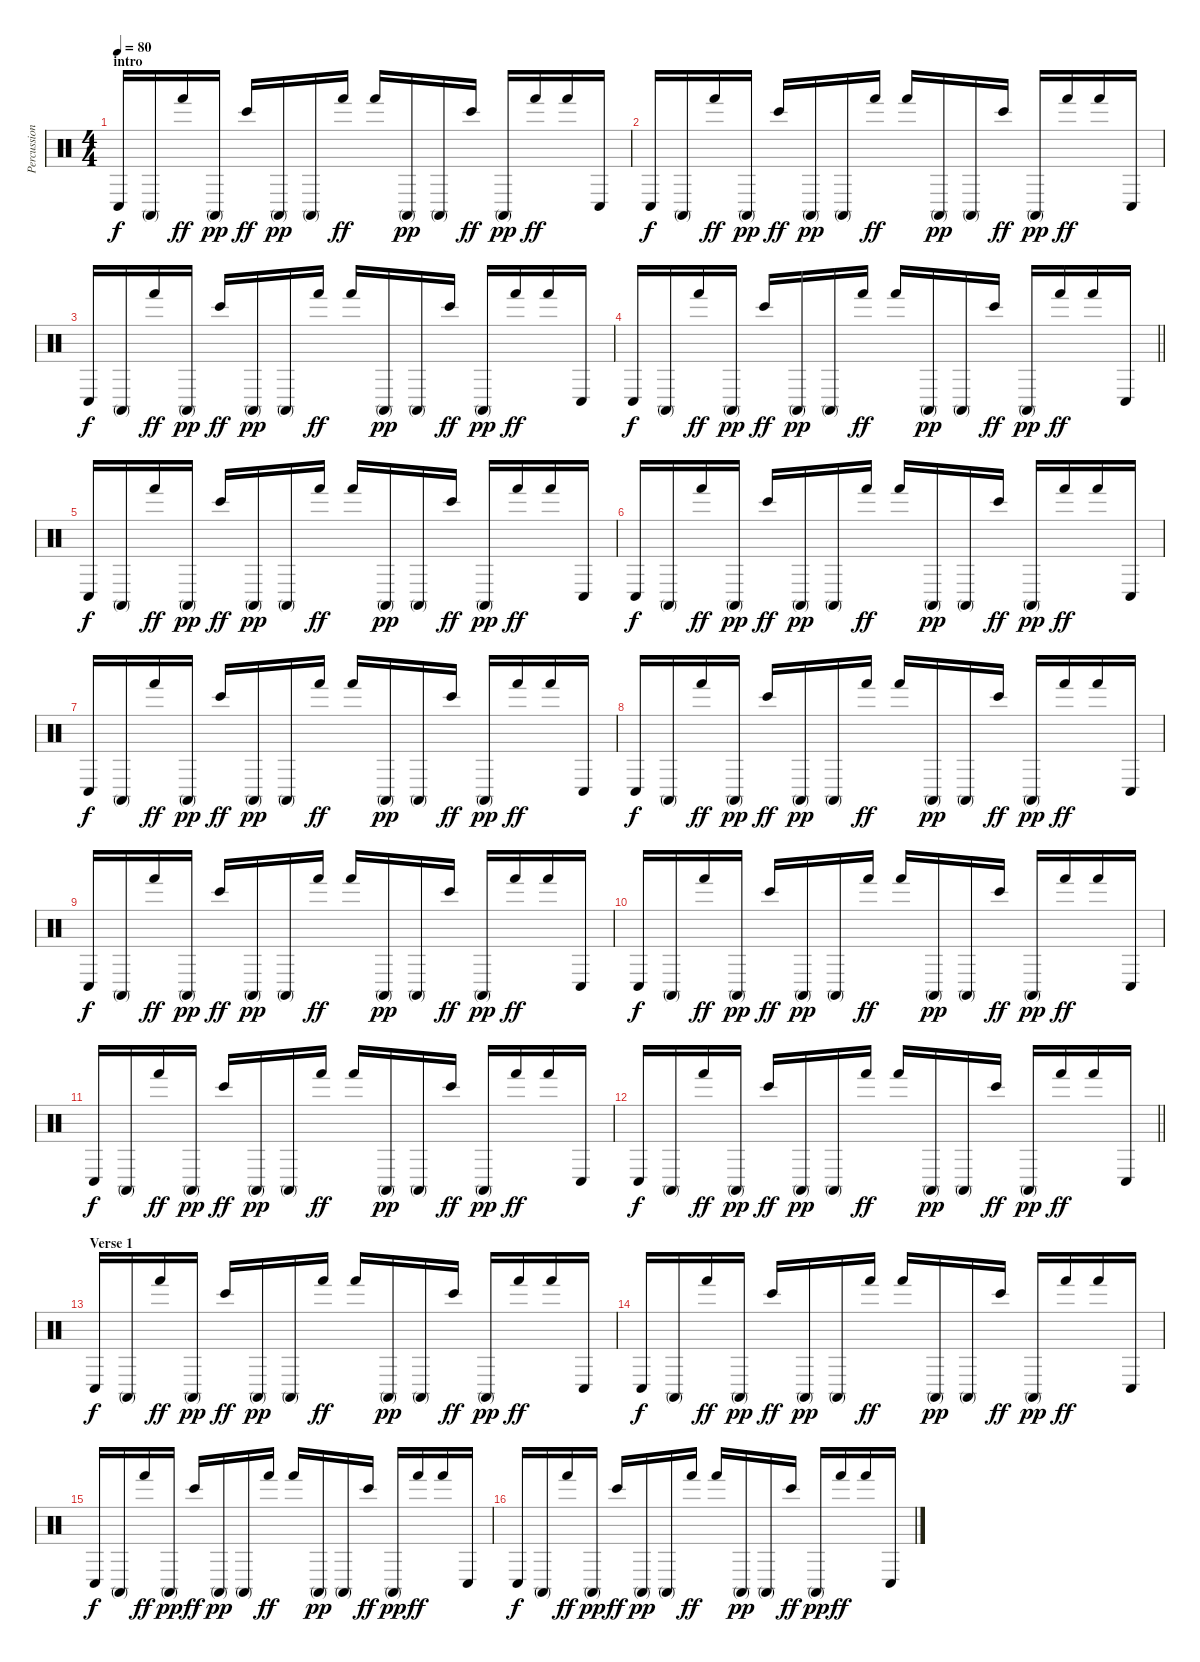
\track ("Percussions" "Percussion") {instrument percussion}
\staff {score}
\articulation defaults
\ts (4 4)
\section ("" "intro")
\tempo 80
\clef neutral
\ks c "Conga low (hit)".16{dy f} "Conga high (mute)".16 "Hand (hit)".16{dy ff} "Conga high (mute)".16{dy pp} "Bongo High (hit)".16{dy ff} "Conga high (mute)".16{dy pp} "Conga high (mute)".16 "Hand (hit)".16{dy ff} "Hand (hit)".16 "Conga high (mute)".16{dy pp} "Conga high (mute)".16 "Bongo High (hit)".16{dy ff} "Conga high (mute)".16{dy pp} "Hand (hit)".16{dy ff} "Hand (hit)".16 "Conga low (hit)".16
|
"Conga low (hit)".16{dy f} "Conga high (mute)".16 "Hand (hit)".16{dy ff} "Conga high (mute)".16{dy pp} "Bongo High (hit)".16{dy ff} "Conga high (mute)".16{dy pp} "Conga high (mute)".16 "Hand (hit)".16{dy ff} "Hand (hit)".16 "Conga high (mute)".16{dy pp} "Conga high (mute)".16 "Bongo High (hit)".16{dy ff} "Conga high (mute)".16{dy pp} "Hand (hit)".16{dy ff} "Hand (hit)".16 "Conga low (hit)".16 |
"Conga low (hit)".16{dy f} "Conga high (mute)".16 "Hand (hit)".16{dy ff} "Conga high (mute)".16{dy pp} "Bongo High (hit)".16{dy ff} "Conga high (mute)".16{dy pp} "Conga high (mute)".16 "Hand (hit)".16{dy ff} "Hand (hit)".16 "Conga high (mute)".16{dy pp} "Conga high (mute)".16 "Bongo High (hit)".16{dy ff} "Conga high (mute)".16{dy pp} "Hand (hit)".16{dy ff} "Hand (hit)".16 "Conga low (hit)".16 |
\barLineRight lightlight "Conga low (hit)".16{dy f} "Conga high (mute)".16 "Hand (hit)".16{dy ff} "Conga high (mute)".16{dy pp} "Bongo High (hit)".16{dy ff} "Conga high (mute)".16{dy pp} "Conga high (mute)".16 "Hand (hit)".16{dy ff} "Hand (hit)".16 "Conga high (mute)".16{dy pp} "Conga high (mute)".16 "Bongo High (hit)".16{dy ff} "Conga high (mute)".16{dy pp} "Hand (hit)".16{dy ff} "Hand (hit)".16 "Conga low (hit)".16
|
"Conga low (hit)".16{dy f} "Conga high (mute)".16 "Hand (hit)".16{dy ff} "Conga high (mute)".16{dy pp} "Bongo High (hit)".16{dy ff} "Conga high (mute)".16{dy pp} "Conga high (mute)".16 "Hand (hit)".16{dy ff} "Hand (hit)".16 "Conga high (mute)".16{dy pp} "Conga high (mute)".16 "Bongo High (hit)".16{dy ff} "Conga high (mute)".16{dy pp} "Hand (hit)".16{dy ff} "Hand (hit)".16 "Conga low (hit)".16 |
"Conga low (hit)".16{dy f} "Conga high (mute)".16 "Hand (hit)".16{dy ff} "Conga high (mute)".16{dy pp} "Bongo High (hit)".16{dy ff} "Conga high (mute)".16{dy pp} "Conga high (mute)".16 "Hand (hit)".16{dy ff} "Hand (hit)".16 "Conga high (mute)".16{dy pp} "Conga high (mute)".16 "Bongo High (hit)".16{dy ff} "Conga high (mute)".16{dy pp} "Hand (hit)".16{dy ff} "Hand (hit)".16 "Conga low (hit)".16 |
"Conga low (hit)".16{dy f} "Conga high (mute)".16 "Hand (hit)".16{dy ff} "Conga high (mute)".16{dy pp} "Bongo High (hit)".16{dy ff} "Conga high (mute)".16{dy pp} "Conga high (mute)".16 "Hand (hit)".16{dy ff} "Hand (hit)".16 "Conga high (mute)".16{dy pp} "Conga high (mute)".16 "Bongo High (hit)".16{dy ff} "Conga high (mute)".16{dy pp} "Hand (hit)".16{dy ff} "Hand (hit)".16 "Conga low (hit)".16 |
"Conga low (hit)".16{dy f} "Conga high (mute)".16 "Hand (hit)".16{dy ff} "Conga high (mute)".16{dy pp} "Bongo High (hit)".16{dy ff} "Conga high (mute)".16{dy pp} "Conga high (mute)".16 "Hand (hit)".16{dy ff} "Hand (hit)".16 "Conga high (mute)".16{dy pp} "Conga high (mute)".16 "Bongo High (hit)".16{dy ff} "Conga high (mute)".16{dy pp} "Hand (hit)".16{dy ff} "Hand (hit)".16 "Conga low (hit)".16 |
"Conga low (hit)".16{dy f} "Conga high (mute)".16 "Hand (hit)".16{dy ff} "Conga high (mute)".16{dy pp} "Bongo High (hit)".16{dy ff} "Conga high (mute)".16{dy pp} "Conga high (mute)".16 "Hand (hit)".16{dy ff} "Hand (hit)".16 "Conga high (mute)".16{dy pp} "Conga high (mute)".16 "Bongo High (hit)".16{dy ff} "Conga high (mute)".16{dy pp} "Hand (hit)".16{dy ff} "Hand (hit)".16 "Conga low (hit)".16 |
"Conga low (hit)".16{dy f} "Conga high (mute)".16 "Hand (hit)".16{dy ff} "Conga high (mute)".16{dy pp} "Bongo High (hit)".16{dy ff} "Conga high (mute)".16{dy pp} "Conga high (mute)".16 "Hand (hit)".16{dy ff} "Hand (hit)".16 "Conga high (mute)".16{dy pp} "Conga high (mute)".16 "Bongo High (hit)".16{dy ff} "Conga high (mute)".16{dy pp} "Hand (hit)".16{dy ff} "Hand (hit)".16 "Conga low (hit)".16 |
"Conga low (hit)".16{dy f} "Conga high (mute)".16 "Hand (hit)".16{dy ff} "Conga high (mute)".16{dy pp} "Bongo High (hit)".16{dy ff} "Conga high (mute)".16{dy pp} "Conga high (mute)".16 "Hand (hit)".16{dy ff} "Hand (hit)".16 "Conga high (mute)".16{dy pp} "Conga high (mute)".16 "Bongo High (hit)".16{dy ff} "Conga high (mute)".16{dy pp} "Hand (hit)".16{dy ff} "Hand (hit)".16 "Conga low (hit)".16 |
\barLineRight lightlight "Conga low (hit)".16{dy f} "Conga high (mute)".16 "Hand (hit)".16{dy ff} "Conga high (mute)".16{dy pp} "Bongo High (hit)".16{dy ff} "Conga high (mute)".16{dy pp} "Conga high (mute)".16 "Hand (hit)".16{dy ff} "Hand (hit)".16 "Conga high (mute)".16{dy pp} "Conga high (mute)".16 "Bongo High (hit)".16{dy ff} "Conga high (mute)".16{dy pp} "Hand (hit)".16{dy ff} "Hand (hit)".16 "Conga low (hit)".16
|
\section ("" "Verse 1")
"Conga low (hit)".16{dy f} "Conga high (mute)".16 "Hand (hit)".16{dy ff} "Conga high (mute)".16{dy pp} "Bongo High (hit)".16{dy ff} "Conga high (mute)".16{dy pp} "Conga high (mute)".16 "Hand (hit)".16{dy ff} "Hand (hit)".16 "Conga high (mute)".16{dy pp} "Conga high (mute)".16 "Bongo High (hit)".16{dy ff} "Conga high (mute)".16{dy pp} "Hand (hit)".16{dy ff} "Hand (hit)".16 "Conga low (hit)".16 |
"Conga low (hit)".16{dy f} "Conga high (mute)".16 "Hand (hit)".16{dy ff} "Conga high (mute)".16{dy pp} "Bongo High (hit)".16{dy ff} "Conga high (mute)".16{dy pp} "Conga high (mute)".16 "Hand (hit)".16{dy ff} "Hand (hit)".16 "Conga high (mute)".16{dy pp} "Conga high (mute)".16 "Bongo High (hit)".16{dy ff} "Conga high (mute)".16{dy pp} "Hand (hit)".16{dy ff} "Hand (hit)".16 "Conga low (hit)".16 |
"Conga low (hit)".16{dy f} "Conga high (mute)".16 "Hand (hit)".16{dy ff} "Conga high (mute)".16{dy pp} "Bongo High (hit)".16{dy ff} "Conga high (mute)".16{dy pp} "Conga high (mute)".16 "Hand (hit)".16{dy ff} "Hand (hit)".16 "Conga high (mute)".16{dy pp} "Conga high (mute)".16 "Bongo High (hit)".16{dy ff} "Conga high (mute)".16{dy pp} "Hand (hit)".16{dy ff} "Hand (hit)".16 "Conga low (hit)".16 |
"Conga low (hit)".16{dy f} "Conga high (mute)".16 "Hand (hit)".16{dy ff} "Conga high (mute)".16{dy pp} "Bongo High (hit)".16{dy ff} "Conga high (mute)".16{dy pp} "Conga high (mute)".16 "Hand (hit)".16{dy ff} "Hand (hit)".16 "Conga high (mute)".16{dy pp} "Conga high (mute)".16 "Bongo High (hit)".16{dy ff} "Conga high (mute)".16{dy pp} "Hand (hit)".16{dy ff} "Hand (hit)".16 "Conga low (hit)".16
